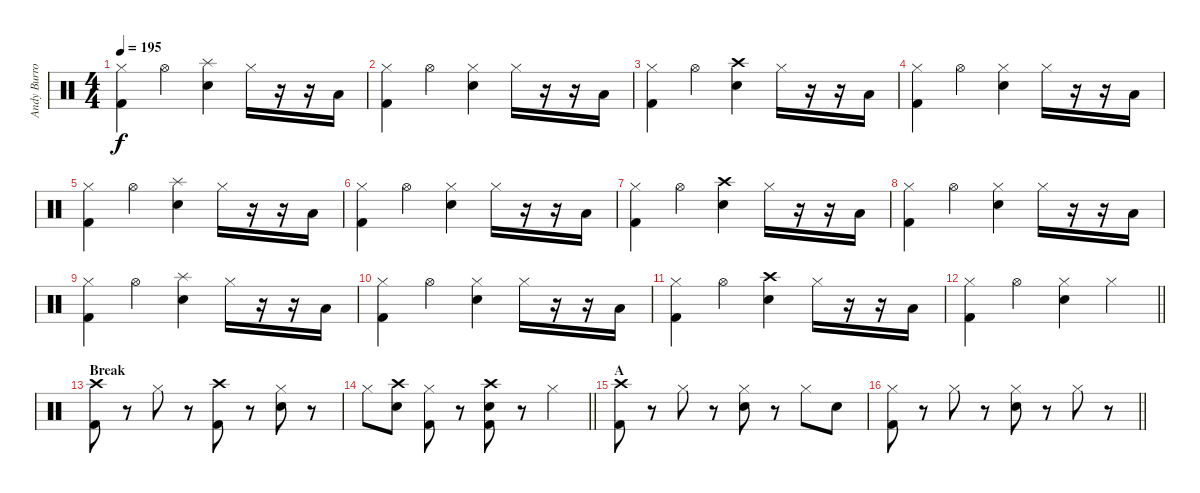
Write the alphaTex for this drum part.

\track ("Andy Burrows (drums)" "Andy Burro") {instrument percussion}
\staff {score}
\articulation defaults
\ts (4 4)
\tempo 195
\clef neutral
\ks c
("Hi-Hat (closed)" "Kick (hit) 2").4{dy f} "Hi-Hat (open)".4 ("Splash (hit)" "Electric Snare (hit)").4 "Hi-Hat (closed)".16 r.16 r.16 "Low Floor Tom (hit)".16 |
("Hi-Hat (closed)" "Kick (hit) 2").4 "Hi-Hat (open)".4 ("Hi-Hat (closed)" "Electric Snare (hit)").4 "Hi-Hat (closed)".16 r.16 r.16 "Low Floor Tom (hit)".16 |
("Hi-Hat (closed)" "Kick (hit) 2").4 "Hi-Hat (open)".4 ("Crash high (hit)" "Electric Snare (hit)").4 "Hi-Hat (closed)".16 r.16 r.16 "Low Floor Tom (hit)".16 |
("Hi-Hat (closed)" "Kick (hit) 2").4 "Hi-Hat (open)".4 ("Hi-Hat (closed)" "Electric Snare (hit)").4 "Hi-Hat (closed)".16 r.16 r.16 "Low Floor Tom (hit)".16 |
("Hi-Hat (closed)" "Kick (hit) 2").4 "Hi-Hat (open)".4 ("Splash (hit)" "Electric Snare (hit)").4 "Hi-Hat (closed)".16 r.16 r.16 "Low Floor Tom (hit)".16 |
("Hi-Hat (closed)" "Kick (hit) 2").4 "Hi-Hat (open)".4 ("Hi-Hat (closed)" "Electric Snare (hit)").4 "Hi-Hat (closed)".16 r.16 r.16 "Low Floor Tom (hit)".16 |
("Hi-Hat (closed)" "Kick (hit) 2").4 "Hi-Hat (open)".4 ("Crash high (hit)" "Electric Snare (hit)").4 "Hi-Hat (closed)".16 r.16 r.16 "Low Floor Tom (hit)".16 |
("Hi-Hat (closed)" "Kick (hit) 2").4 "Hi-Hat (open)".4 ("Hi-Hat (closed)" "Electric Snare (hit)").4 "Hi-Hat (closed)".16 r.16 r.16 "Low Floor Tom (hit)".16 |
("Hi-Hat (closed)" "Kick (hit) 2").4 "Hi-Hat (open)".4 ("Splash (hit)" "Electric Snare (hit)").4 "Hi-Hat (closed)".16 r.16 r.16 "Low Floor Tom (hit)".16 |
("Hi-Hat (closed)" "Kick (hit) 2").4 "Hi-Hat (open)".4 ("Hi-Hat (closed)" "Electric Snare (hit)").4 "Hi-Hat (closed)".16 r.16 r.16 "Low Floor Tom (hit)".16 |
("Hi-Hat (closed)" "Kick (hit) 2").4 "Hi-Hat (open)".4 ("Crash high (hit)" "Electric Snare (hit)").4 "Hi-Hat (closed)".16 r.16 r.16 "Low Floor Tom (hit)".16 |
\barLineRight lightlight
("Hi-Hat (closed)" "Kick (hit) 2").4 "Hi-Hat (open)".4 ("Hi-Hat (closed)" "Electric Snare (hit)").4 "Hi-Hat (closed)".4 |
\section ("" "Break")
("Crash high (hit)" "Kick (hit) 2").8 r.8 "Hi-Hat (closed)".8 r.8 ("Crash high (hit)" "Kick (hit) 2").8 r.8 ("Hi-Hat (closed)" "Electric Snare (hit)").8 r.8 |
\barLineRight lightlight "Hi-Hat (closed)".8
("Crash high (hit)" "Electric Snare (hit)").8 ("Hi-Hat (closed)" "Kick (hit) 2").8 r.8 ("Crash high (hit)" "Electric Snare (hit)" "Kick (hit) 2").8 r.8 "Hi-Hat (closed)".4 |
\section ("" "A")
("Crash high (hit)" "Kick (hit) 2").8 r.8 "Hi-Hat (closed)".8 r.8 ("Hi-Hat (closed)" "Electric Snare (hit)").8 r.8 "Hi-Hat (closed)".8 "Electric Snare (hit)".8 |
\barLineRight lightlight
("Hi-Hat (closed)" "Kick (hit) 2").8 r.8 "Hi-Hat (closed)".8 r.8 ("Hi-Hat (closed)" "Electric Snare (hit)").8 r.8 "Hi-Hat (closed)".8 r.8
